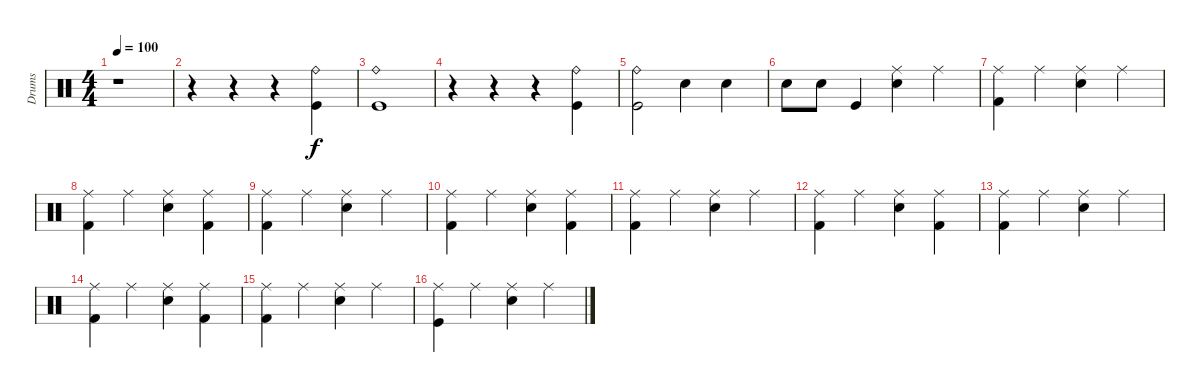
\track ("Drums" "Drums") {instrument percussion}
\staff {score}
\articulation defaults
\ts (4 4)
\tempo 100
\clef neutral
\ks c
r.1{dy f} |
r.4 r.4 r.4 ("Ride (bell)" "Kick (hit)").4 |
("Ride (bell)" "Kick (hit)").1 |
r.4 r.4 r.4 ("Ride (bell)" "Kick (hit)").4 |
("Ride (bell)" "Kick (hit)").2 "Electric Snare (hit)".4 "Electric Snare (hit)".4 |
"Electric Snare (hit)".8 "Electric Snare (hit)".8 "Kick (hit)".4 ("Ride (middle)" "Electric Snare (hit)").4 "Ride (middle)".4 |
("Ride (middle)" "Kick (hit) 2").4 "Ride (middle)".4 ("Ride (middle)" "Electric Snare (hit)").4 "Ride (middle)".4 |
("Ride (middle)" "Kick (hit) 2").4 "Ride (middle)".4 ("Ride (middle)" "Electric Snare (hit)").4 ("Ride (middle)" "Kick (hit) 2").4 |
("Ride (middle)" "Kick (hit) 2").4 "Ride (middle)".4 ("Ride (middle)" "Electric Snare (hit)").4 "Ride (middle)".4 |
("Ride (middle)" "Kick (hit) 2").4 "Ride (middle)".4 ("Ride (middle)" "Electric Snare (hit)").4 ("Ride (middle)" "Kick (hit) 2").4 |
("Ride (middle)" "Kick (hit) 2").4 "Ride (middle)".4 ("Ride (middle)" "Electric Snare (hit)").4 "Ride (middle)".4 |
("Ride (middle)" "Kick (hit) 2").4 "Ride (middle)".4 ("Ride (middle)" "Electric Snare (hit)").4 ("Ride (middle)" "Kick (hit) 2").4 |
("Ride (middle)" "Kick (hit) 2").4 "Ride (middle)".4 ("Ride (middle)" "Electric Snare (hit)").4 "Ride (middle)".4 |
("Ride (middle)" "Kick (hit) 2").4 "Ride (middle)".4 ("Ride (middle)" "Electric Snare (hit)").4 ("Ride (middle)" "Kick (hit) 2").4 |
("Ride (middle)" "Kick (hit) 2").4 "Ride (middle)".4 ("Ride (middle)" "Electric Snare (hit)").4 "Ride (middle)".4 |
("Ride (middle)" "Kick (hit)").4 "Ride (middle)".4 ("Ride (middle)" "Electric Snare (hit)").4 "Ride (middle)".4
